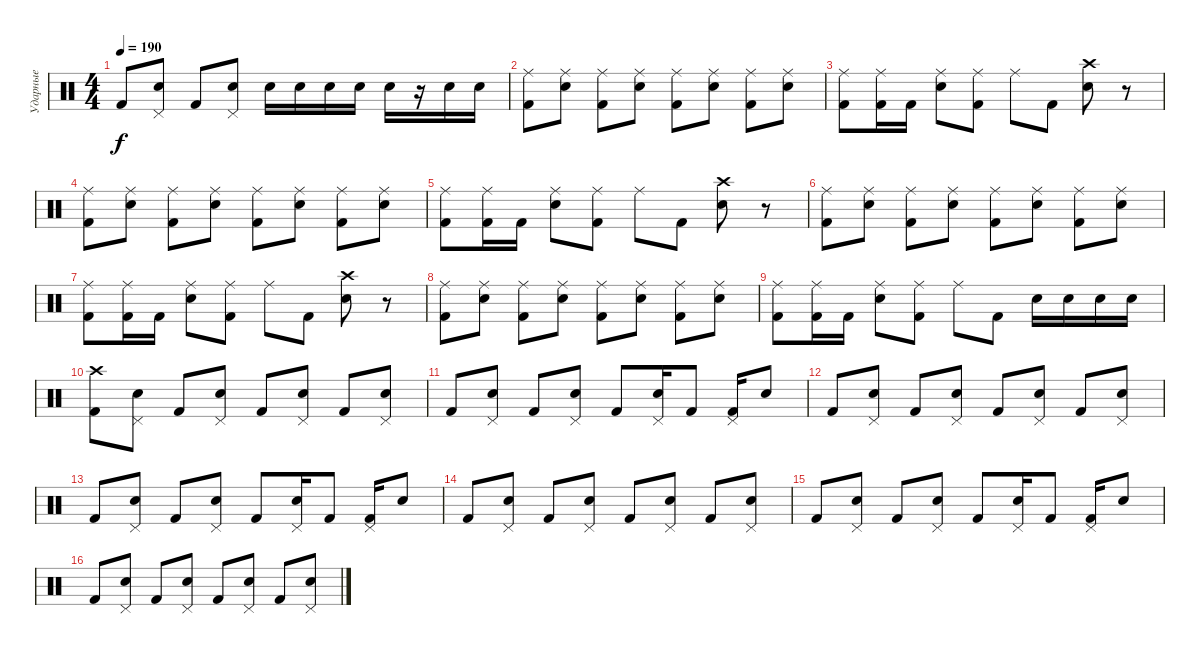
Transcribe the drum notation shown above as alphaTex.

\track ("Ударные" "Ударные") {instrument percussion}
\staff {score}
\articulation defaults
\ts (4 4)
\tempo 190
\clef neutral
\ks c "Kick (hit) 2".8{dy f}
("Pedal Hi-Hat (hit)" "Electric Snare (hit)").8 "Kick (hit) 2".8 ("Pedal Hi-Hat (hit)" "Electric Snare (hit)").8 "Electric Snare (hit)".16 "Electric Snare (hit)".16 "Electric Snare (hit)".16 "Electric Snare (hit)".16 "Electric Snare (hit)".16 r.16 "Electric Snare (hit)".16 "Electric Snare (hit)".16 |
("Ride (middle)" "Kick (hit) 2").8 ("Ride (middle)" "Electric Snare (hit)").8 ("Ride (middle)" "Kick (hit) 2").8 ("Ride (middle)" "Electric Snare (hit)").8 ("Ride (middle)" "Kick (hit) 2").8 ("Ride (middle)" "Electric Snare (hit)").8 ("Ride (middle)" "Kick (hit) 2").8 ("Ride (middle)" "Electric Snare (hit)").8 |
("Ride (middle)" "Kick (hit) 2").8 ("Ride (middle)" "Kick (hit) 2").16 "Kick (hit) 2".16 ("Ride (middle)" "Electric Snare (hit)").8 ("Ride (middle)" "Kick (hit) 2").8 "Ride (middle)".8 "Kick (hit) 2".8 ("Crash high (hit)" "Electric Snare (hit)").8 r.8 |
("Ride (middle)" "Kick (hit) 2").8 ("Ride (middle)" "Electric Snare (hit)").8 ("Ride (middle)" "Kick (hit) 2").8 ("Ride (middle)" "Electric Snare (hit)").8 ("Ride (middle)" "Kick (hit) 2").8 ("Ride (middle)" "Electric Snare (hit)").8 ("Ride (middle)" "Kick (hit) 2").8 ("Ride (middle)" "Electric Snare (hit)").8 |
("Ride (middle)" "Kick (hit) 2").8 ("Ride (middle)" "Kick (hit) 2").16 "Kick (hit) 2".16 ("Ride (middle)" "Electric Snare (hit)").8 ("Ride (middle)" "Kick (hit) 2").8 "Ride (middle)".8 "Kick (hit) 2".8 ("Crash high (hit)" "Electric Snare (hit)").8 r.8 |
("Ride (middle)" "Kick (hit) 2").8 ("Ride (middle)" "Electric Snare (hit)").8 ("Ride (middle)" "Kick (hit) 2").8 ("Ride (middle)" "Electric Snare (hit)").8 ("Ride (middle)" "Kick (hit) 2").8 ("Ride (middle)" "Electric Snare (hit)").8 ("Ride (middle)" "Kick (hit) 2").8 ("Ride (middle)" "Electric Snare (hit)").8 |
("Ride (middle)" "Kick (hit) 2").8 ("Ride (middle)" "Kick (hit) 2").16 "Kick (hit) 2".16 ("Ride (middle)" "Electric Snare (hit)").8 ("Ride (middle)" "Kick (hit) 2").8 "Ride (middle)".8 "Kick (hit) 2".8 ("Crash high (hit)" "Electric Snare (hit)").8 r.8 |
("Ride (middle)" "Kick (hit) 2").8 ("Ride (middle)" "Electric Snare (hit)").8 ("Ride (middle)" "Kick (hit) 2").8 ("Ride (middle)" "Electric Snare (hit)").8 ("Ride (middle)" "Kick (hit) 2").8 ("Ride (middle)" "Electric Snare (hit)").8 ("Ride (middle)" "Kick (hit) 2").8 ("Ride (middle)" "Electric Snare (hit)").8 |
("Ride (middle)" "Kick (hit) 2").8 ("Ride (middle)" "Kick (hit) 2").16 "Kick (hit) 2".16 ("Ride (middle)" "Electric Snare (hit)").8 ("Ride (middle)" "Kick (hit) 2").8 "Ride (middle)".8 "Kick (hit) 2".8 "Electric Snare (hit)".16 "Electric Snare (hit)".16 "Electric Snare (hit)".16 "Electric Snare (hit)".16 |
("Crash high (hit)" "Kick (hit) 2").8 ("Pedal Hi-Hat (hit)" "Electric Snare (hit)").8 "Kick (hit) 2".8 ("Pedal Hi-Hat (hit)" "Electric Snare (hit)").8 "Kick (hit) 2".8 ("Pedal Hi-Hat (hit)" "Electric Snare (hit)").8 "Kick (hit) 2".8 ("Pedal Hi-Hat (hit)" "Electric Snare (hit)").8 |
"Kick (hit) 2".8 ("Pedal Hi-Hat (hit)" "Electric Snare (hit)").8 "Kick (hit) 2".8 ("Pedal Hi-Hat (hit)" "Electric Snare (hit)").8 "Kick (hit) 2".8 ("Pedal Hi-Hat (hit)" "Electric Snare (hit)").16 "Kick (hit) 2".8 ("Pedal Hi-Hat (hit)" "Kick (hit) 2").16 "Electric Snare (hit)".8 |
"Kick (hit) 2".8 ("Pedal Hi-Hat (hit)" "Electric Snare (hit)").8 "Kick (hit) 2".8 ("Pedal Hi-Hat (hit)" "Electric Snare (hit)").8 "Kick (hit) 2".8 ("Pedal Hi-Hat (hit)" "Electric Snare (hit)").8 "Kick (hit) 2".8 ("Pedal Hi-Hat (hit)" "Electric Snare (hit)").8 |
"Kick (hit) 2".8 ("Pedal Hi-Hat (hit)" "Electric Snare (hit)").8 "Kick (hit) 2".8 ("Pedal Hi-Hat (hit)" "Electric Snare (hit)").8 "Kick (hit) 2".8 ("Pedal Hi-Hat (hit)" "Electric Snare (hit)").16 "Kick (hit) 2".8 ("Pedal Hi-Hat (hit)" "Kick (hit) 2").16 "Electric Snare (hit)".8 |
"Kick (hit) 2".8 ("Pedal Hi-Hat (hit)" "Electric Snare (hit)").8 "Kick (hit) 2".8 ("Pedal Hi-Hat (hit)" "Electric Snare (hit)").8 "Kick (hit) 2".8 ("Pedal Hi-Hat (hit)" "Electric Snare (hit)").8 "Kick (hit) 2".8 ("Pedal Hi-Hat (hit)" "Electric Snare (hit)").8 |
"Kick (hit) 2".8 ("Pedal Hi-Hat (hit)" "Electric Snare (hit)").8 "Kick (hit) 2".8 ("Pedal Hi-Hat (hit)" "Electric Snare (hit)").8 "Kick (hit) 2".8 ("Pedal Hi-Hat (hit)" "Electric Snare (hit)").16 "Kick (hit) 2".8 ("Pedal Hi-Hat (hit)" "Kick (hit) 2").16 "Electric Snare (hit)".8 |
"Kick (hit) 2".8 ("Pedal Hi-Hat (hit)" "Electric Snare (hit)").8 "Kick (hit) 2".8 ("Pedal Hi-Hat (hit)" "Electric Snare (hit)").8 "Kick (hit) 2".8 ("Pedal Hi-Hat (hit)" "Electric Snare (hit)").8 "Kick (hit) 2".8 ("Pedal Hi-Hat (hit)" "Electric Snare (hit)").8
